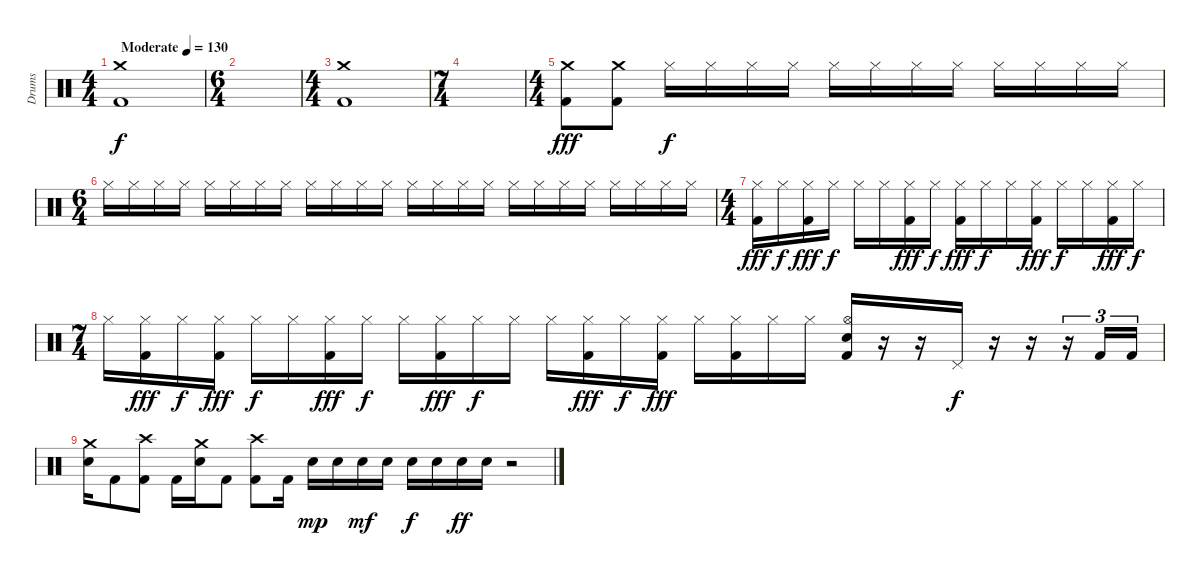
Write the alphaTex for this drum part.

\track ("Drums" "Drums") {instrument percussion}
\staff {score}
\articulation defaults
\ts (4 4)
\tempo (130 "Moderate")
\clef neutral
\ks c
("Crash medium (hit)" "Kick (hit) 2").1{dy f} |
\ts (6 4)
|
\ts (4 4)
("Crash medium (hit)" "Kick (hit) 2").1 |
\ts (7 4)
|
\ts (4 4)
("Crash medium (hit)" "Kick (hit) 2").8{dy fff} ("Crash medium (hit)" "Kick (hit) 2").8 "Hi-Hat (closed)".16{dy f} "Hi-Hat (closed)".16 "Hi-Hat (closed)".16 "Hi-Hat (closed)".16 "Hi-Hat (closed)".16 "Hi-Hat (closed)".16 "Hi-Hat (closed)".16 "Hi-Hat (closed)".16 "Hi-Hat (closed)".16 "Hi-Hat (closed)".16 "Hi-Hat (closed)".16 "Hi-Hat (closed)".16 |
\ts (6 4)
"Hi-Hat (closed)".16 "Hi-Hat (closed)".16 "Hi-Hat (closed)".16 "Hi-Hat (closed)".16 "Hi-Hat (closed)".16 "Hi-Hat (closed)".16 "Hi-Hat (closed)".16 "Hi-Hat (closed)".16 "Hi-Hat (closed)".16 "Hi-Hat (closed)".16 "Hi-Hat (closed)".16 "Hi-Hat (closed)".16 "Hi-Hat (closed)".16 "Hi-Hat (closed)".16 "Hi-Hat (closed)".16 "Hi-Hat (closed)".16 "Hi-Hat (closed)".16 "Hi-Hat (closed)".16 "Hi-Hat (closed)".16 "Hi-Hat (closed)".16 "Hi-Hat (closed)".16 "Hi-Hat (closed)".16 "Hi-Hat (closed)".16 "Hi-Hat (closed)".16 |
\ts (4 4)
("Hi-Hat (closed)" "Kick (hit) 2").16{dy fff} "Hi-Hat (closed)".16{dy f} ("Hi-Hat (closed)" "Kick (hit) 2").16{dy fff} "Hi-Hat (closed)".16{dy f} "Hi-Hat (closed)".16 "Hi-Hat (closed)".16 ("Hi-Hat (closed)" "Kick (hit) 2").16{dy fff} "Hi-Hat (closed)".16{dy f} ("Hi-Hat (closed)" "Kick (hit) 2").16{dy fff} "Hi-Hat (closed)".16{dy f} "Hi-Hat (closed)".16 ("Hi-Hat (closed)" "Kick (hit) 2").16{dy fff} "Hi-Hat (closed)".16{dy f} "Hi-Hat (closed)".16 ("Hi-Hat (closed)" "Kick (hit) 2").16{dy fff} "Hi-Hat (closed)".16{dy f} |
\ts (7 4)
"Hi-Hat (closed)".16 ("Hi-Hat (closed)" "Kick (hit) 2").16{dy fff} "Hi-Hat (closed)".16{dy f} ("Hi-Hat (closed)" "Kick (hit) 2").16{dy fff} "Hi-Hat (closed)".16{dy f} "Hi-Hat (closed)".16 ("Hi-Hat (closed)" "Kick (hit) 2").16{dy fff} "Hi-Hat (closed)".16{dy f} "Hi-Hat (closed)".16 ("Hi-Hat (closed)" "Kick (hit) 2").16{dy fff} "Hi-Hat (closed)".16{dy f} "Hi-Hat (closed)".16 "Hi-Hat (closed)".16 ("Hi-Hat (closed)" "Kick (hit) 2").16{dy fff} "Hi-Hat (closed)".16{dy f} ("Hi-Hat (closed)" "Kick (hit) 2").16{dy fff} "Hi-Hat (closed)".16 ("Hi-Hat (closed)" "Kick (hit) 2").16 "Hi-Hat (closed)".16 "Hi-Hat (closed)".16 ("Hi-Hat (open)" "Electric Snare (hit)" "Kick (hit) 2").16 r.16 r.16 "Pedal Hi-Hat (hit)".16{dy f} r.16 r.16 r.16{tu (3 2)} "Kick (hit) 2".16{tu (3 2)} "Kick (hit) 2".16{tu (3 2)} |
("Crash medium (hit)" "Electric Snare (hit)").16 "Kick (hit) 2".8 ("Crash high (hit)" "Kick (hit) 2").8 "Kick (hit) 2".16 ("Crash medium (hit)" "Electric Snare (hit)").16 "Kick (hit) 2".8 ("Crash high (hit)" "Kick (hit) 2").8 "Kick (hit) 2".16 "Electric Snare (hit)".16{dy mp} "Electric Snare (hit)".16 "Electric Snare (hit)".16{dy mf} "Electric Snare (hit)".16 "Electric Snare (hit)".16{dy f} "Electric Snare (hit)".16 "Electric Snare (hit)".16{dy ff} "Electric Snare (hit)".16 r.2
